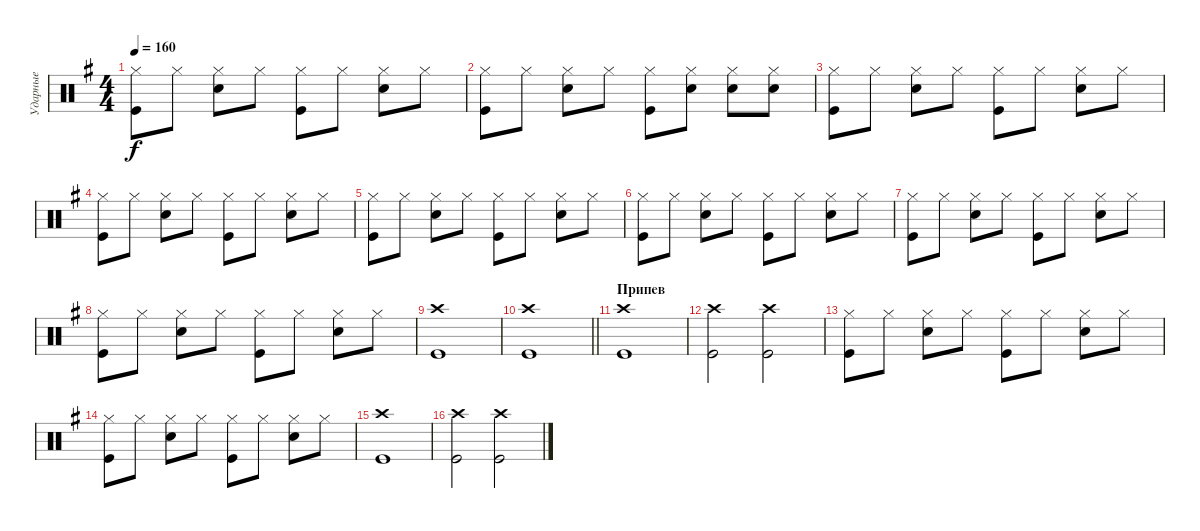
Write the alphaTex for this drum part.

\track ("Ударные" "Ударные") {instrument percussion}
\staff {score}
\articulation defaults
\ts (4 4)
\tempo 160
\clef neutral
\ks eminor
("Hi-Hat (closed)" "Kick (hit)").8{dy f} "Hi-Hat (closed)".8 ("Hi-Hat (closed)" "Electric Snare (hit)").8 "Hi-Hat (closed)".8 ("Hi-Hat (closed)" "Kick (hit)").8 "Hi-Hat (closed)".8 ("Hi-Hat (closed)" "Electric Snare (hit)").8 "Hi-Hat (closed)".8 |
("Hi-Hat (closed)" "Kick (hit)").8 "Hi-Hat (closed)".8 ("Hi-Hat (closed)" "Electric Snare (hit)").8 "Hi-Hat (closed)".8 ("Hi-Hat (closed)" "Kick (hit)").8 ("Hi-Hat (closed)" "Electric Snare (hit)").8 ("Hi-Hat (closed)" "Electric Snare (hit)").8 ("Hi-Hat (closed)" "Electric Snare (hit)").8 |
("Hi-Hat (closed)" "Kick (hit)").8 "Hi-Hat (closed)".8 ("Hi-Hat (closed)" "Electric Snare (hit)").8 "Hi-Hat (closed)".8 ("Hi-Hat (closed)" "Kick (hit)").8 "Hi-Hat (closed)".8 ("Hi-Hat (closed)" "Electric Snare (hit)").8 "Hi-Hat (closed)".8 |
("Hi-Hat (closed)" "Kick (hit)").8 "Hi-Hat (closed)".8 ("Hi-Hat (closed)" "Electric Snare (hit)").8 "Hi-Hat (closed)".8 ("Hi-Hat (closed)" "Kick (hit)").8 "Hi-Hat (closed)".8 ("Hi-Hat (closed)" "Electric Snare (hit)").8 "Hi-Hat (closed)".8 |
("Hi-Hat (closed)" "Kick (hit)").8 "Hi-Hat (closed)".8 ("Hi-Hat (closed)" "Electric Snare (hit)").8 "Hi-Hat (closed)".8 ("Hi-Hat (closed)" "Kick (hit)").8 "Hi-Hat (closed)".8 ("Hi-Hat (closed)" "Electric Snare (hit)").8 "Hi-Hat (closed)".8 |
("Hi-Hat (closed)" "Kick (hit)").8 "Hi-Hat (closed)".8 ("Hi-Hat (closed)" "Electric Snare (hit)").8 "Hi-Hat (closed)".8 ("Hi-Hat (closed)" "Kick (hit)").8 "Hi-Hat (closed)".8 ("Hi-Hat (closed)" "Electric Snare (hit)").8 "Hi-Hat (closed)".8 |
("Hi-Hat (closed)" "Kick (hit)").8 "Hi-Hat (closed)".8 ("Hi-Hat (closed)" "Electric Snare (hit)").8 "Hi-Hat (closed)".8 ("Hi-Hat (closed)" "Kick (hit)").8 "Hi-Hat (closed)".8 ("Hi-Hat (closed)" "Electric Snare (hit)").8 "Hi-Hat (closed)".8 |
("Hi-Hat (closed)" "Kick (hit)").8 "Hi-Hat (closed)".8 ("Hi-Hat (closed)" "Electric Snare (hit)").8 "Hi-Hat (closed)".8 ("Hi-Hat (closed)" "Kick (hit)").8 "Hi-Hat (closed)".8 ("Hi-Hat (closed)" "Electric Snare (hit)").8 "Hi-Hat (closed)".8 |
("Crash high (hit)" "Kick (hit)").1 |
\barLineRight lightlight
("Crash high (hit)" "Kick (hit)").1 |
\section ("" "Припев")
("Crash high (hit)" "Kick (hit)").1 |
("Crash high (hit)" "Kick (hit)").2 ("Crash high (hit)" "Kick (hit)").2 |
("Hi-Hat (closed)" "Kick (hit)").8 "Hi-Hat (closed)".8 ("Hi-Hat (closed)" "Electric Snare (hit)").8 "Hi-Hat (closed)".8 ("Hi-Hat (closed)" "Kick (hit)").8 "Hi-Hat (closed)".8 ("Hi-Hat (closed)" "Electric Snare (hit)").8 "Hi-Hat (closed)".8 |
("Hi-Hat (closed)" "Kick (hit)").8 "Hi-Hat (closed)".8 ("Hi-Hat (closed)" "Electric Snare (hit)").8 "Hi-Hat (closed)".8 ("Hi-Hat (closed)" "Kick (hit)").8 "Hi-Hat (closed)".8 ("Hi-Hat (closed)" "Electric Snare (hit)").8 "Hi-Hat (closed)".8 |
("Crash high (hit)" "Kick (hit)").1 |
("Crash high (hit)" "Kick (hit)").2 ("Crash high (hit)" "Kick (hit)").2
